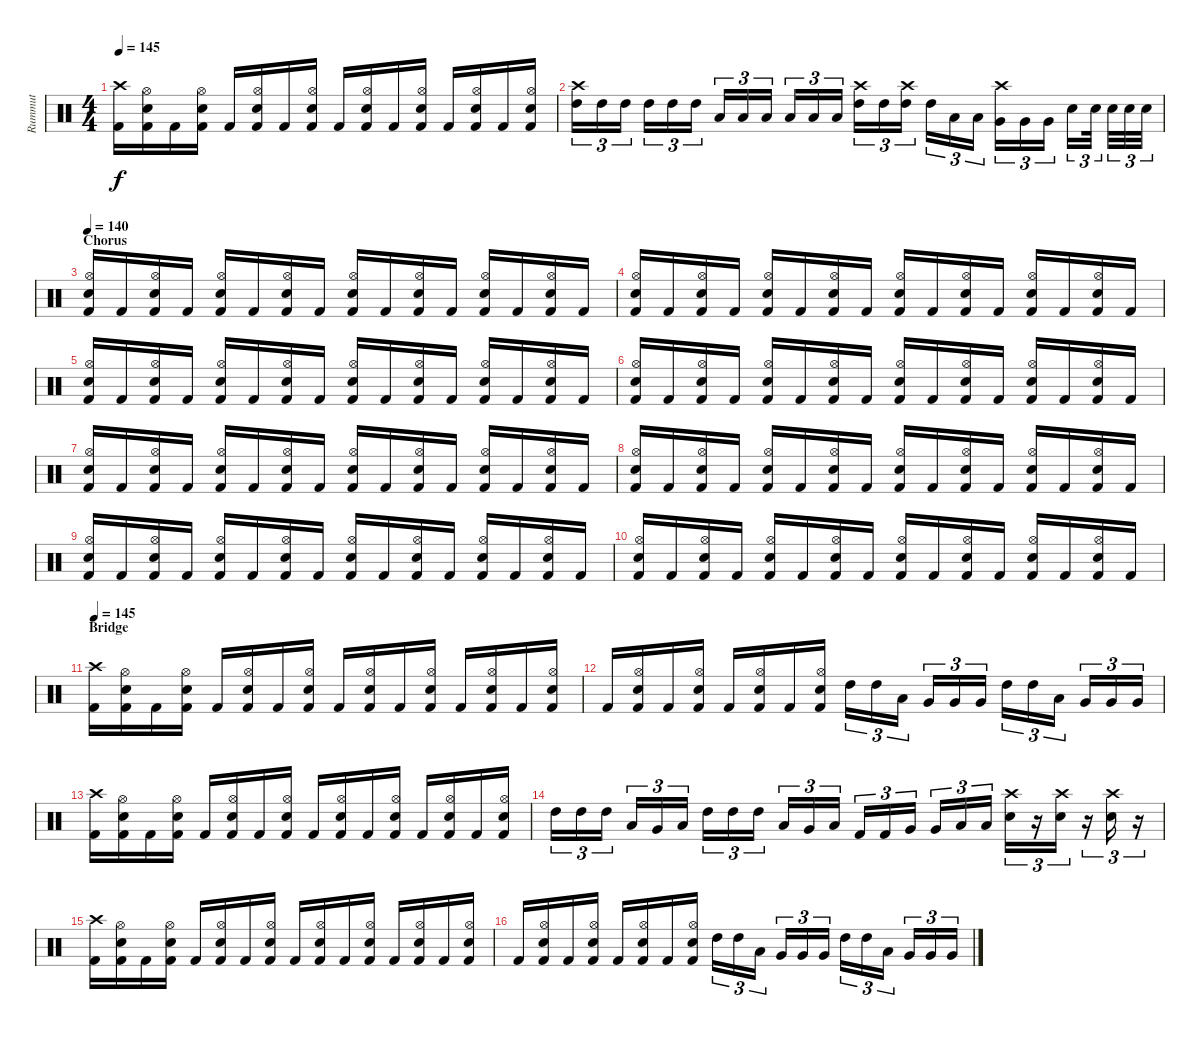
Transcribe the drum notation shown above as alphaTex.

\track ("Rummut" "Rummut") {instrument percussion}
\staff {score}
\articulation defaults
\ts (4 4)
\tempo 145
\clef neutral
\ks c
("Crash high (hit)" "Kick (hit) 2").16{dy f} ("Hi-Hat (open)" "Snare (hit) 2" "Kick (hit) 2").16 "Kick (hit) 2".16 ("Hi-Hat (open)" "Snare (hit) 2" "Kick (hit) 2").16 "Kick (hit) 2".16 ("Hi-Hat (open)" "Snare (hit) 2" "Kick (hit) 2").16 "Kick (hit) 2".16 ("Hi-Hat (open)" "Snare (hit) 2" "Kick (hit) 2").16 "Kick (hit) 2".16 ("Hi-Hat (open)" "Snare (hit) 2" "Kick (hit) 2").16 "Kick (hit) 2".16 ("Hi-Hat (open)" "Snare (hit) 2" "Kick (hit) 2").16 "Kick (hit) 2".16 ("Hi-Hat (open)" "Snare (hit) 2" "Kick (hit) 2").16 "Kick (hit) 2".16 ("Hi-Hat (open)" "Snare (hit) 2" "Kick (hit) 2").16 |
("Crash high (hit)" "High Tom (hit)").16{tu (3 2)} "High Tom (hit)".16{tu (3 2)} "High Tom (hit)".16{tu (3 2)} "High Tom (hit)".16{tu (3 2)} "High Tom (hit)".16{tu (3 2)} "High Tom (hit)".16{tu (3 2)} "Low Tom (hit)".16{tu (3 2)} "Low Tom (hit)".16{tu (3 2)} "Low Tom (hit)".16{tu (3 2)} "Low Tom (hit)".16{tu (3 2)} "Low Tom (hit)".16{tu (3 2)} "Low Tom (hit)".16{tu (3 2)} ("Crash high (hit)" "High Tom (hit)").16{tu (3 2)} "High Tom (hit)".16{tu (3 2)} ("Crash high (hit)" "High Tom (hit)").16{tu (3 2)} "High Tom (hit)".16{tu (3 2)} "Low Tom (hit)".16{tu (3 2)} "Low Tom (hit)".16{tu (3 2)} ("Crash high (hit)" "Very Low Tom (hit)").16{tu (3 2)} "Very Low Tom (hit)".16{tu (3 2)} "Very Low Tom (hit)".16{tu (3 2)} "Metronome (bell)".16{tu (3 2)} "Snare (hit) 2".32{tu (3 2)} "Snare (hit) 2".32{tu (3 2)} "Snare (hit) 2".32{tu (3 2)} "Snare (hit) 2".32{tu (3 2)} |
\section ("" "Chorus")
\tempo 140
("Hi-Hat (open)" "Snare (hit) 2" "Kick (hit) 2").16 "Kick (hit) 2".16 ("Hi-Hat (open)" "Snare (hit) 2" "Kick (hit) 2").16 "Kick (hit) 2".16 ("Hi-Hat (open)" "Snare (hit) 2" "Kick (hit) 2").16 "Kick (hit) 2".16 ("Hi-Hat (open)" "Snare (hit) 2" "Kick (hit) 2").16 "Kick (hit) 2".16 ("Hi-Hat (open)" "Snare (hit) 2" "Kick (hit) 2").16 "Kick (hit) 2".16 ("Hi-Hat (open)" "Snare (hit) 2" "Kick (hit) 2").16 "Kick (hit) 2".16 ("Hi-Hat (open)" "Snare (hit) 2" "Kick (hit) 2").16 "Kick (hit) 2".16 ("Hi-Hat (open)" "Snare (hit) 2" "Kick (hit) 2").16 "Kick (hit) 2".16 |
("Hi-Hat (open)" "Snare (hit) 2" "Kick (hit) 2").16 "Kick (hit) 2".16 ("Hi-Hat (open)" "Snare (hit) 2" "Kick (hit) 2").16 "Kick (hit) 2".16 ("Hi-Hat (open)" "Snare (hit) 2" "Kick (hit) 2").16 "Kick (hit) 2".16 ("Hi-Hat (open)" "Snare (hit) 2" "Kick (hit) 2").16 "Kick (hit) 2".16 ("Hi-Hat (open)" "Snare (hit) 2" "Kick (hit) 2").16 "Kick (hit) 2".16 ("Hi-Hat (open)" "Snare (hit) 2" "Kick (hit) 2").16 "Kick (hit) 2".16 ("Hi-Hat (open)" "Snare (hit) 2" "Kick (hit) 2").16 "Kick (hit) 2".16 ("Hi-Hat (open)" "Snare (hit) 2" "Kick (hit) 2").16 "Kick (hit) 2".16 |
("Hi-Hat (open)" "Snare (hit) 2" "Kick (hit) 2").16 "Kick (hit) 2".16 ("Hi-Hat (open)" "Snare (hit) 2" "Kick (hit) 2").16 "Kick (hit) 2".16 ("Hi-Hat (open)" "Snare (hit) 2" "Kick (hit) 2").16 "Kick (hit) 2".16 ("Hi-Hat (open)" "Snare (hit) 2" "Kick (hit) 2").16 "Kick (hit) 2".16 ("Hi-Hat (open)" "Snare (hit) 2" "Kick (hit) 2").16 "Kick (hit) 2".16 ("Hi-Hat (open)" "Snare (hit) 2" "Kick (hit) 2").16 "Kick (hit) 2".16 ("Hi-Hat (open)" "Snare (hit) 2" "Kick (hit) 2").16 "Kick (hit) 2".16 ("Hi-Hat (open)" "Snare (hit) 2" "Kick (hit) 2").16 "Kick (hit) 2".16 |
("Hi-Hat (open)" "Snare (hit) 2" "Kick (hit) 2").16 "Kick (hit) 2".16 ("Hi-Hat (open)" "Snare (hit) 2" "Kick (hit) 2").16 "Kick (hit) 2".16 ("Hi-Hat (open)" "Snare (hit) 2" "Kick (hit) 2").16 "Kick (hit) 2".16 ("Hi-Hat (open)" "Snare (hit) 2" "Kick (hit) 2").16 "Kick (hit) 2".16 ("Hi-Hat (open)" "Snare (hit) 2" "Kick (hit) 2").16 "Kick (hit) 2".16 ("Hi-Hat (open)" "Snare (hit) 2" "Kick (hit) 2").16 "Kick (hit) 2".16 ("Hi-Hat (open)" "Snare (hit) 2" "Kick (hit) 2").16 "Kick (hit) 2".16 ("Hi-Hat (open)" "Snare (hit) 2" "Kick (hit) 2").16 "Kick (hit) 2".16 |
("Hi-Hat (open)" "Snare (hit) 2" "Kick (hit) 2").16 "Kick (hit) 2".16 ("Hi-Hat (open)" "Snare (hit) 2" "Kick (hit) 2").16 "Kick (hit) 2".16 ("Hi-Hat (open)" "Snare (hit) 2" "Kick (hit) 2").16 "Kick (hit) 2".16 ("Hi-Hat (open)" "Snare (hit) 2" "Kick (hit) 2").16 "Kick (hit) 2".16 ("Hi-Hat (open)" "Snare (hit) 2" "Kick (hit) 2").16 "Kick (hit) 2".16 ("Hi-Hat (open)" "Snare (hit) 2" "Kick (hit) 2").16 "Kick (hit) 2".16 ("Hi-Hat (open)" "Snare (hit) 2" "Kick (hit) 2").16 "Kick (hit) 2".16 ("Hi-Hat (open)" "Snare (hit) 2" "Kick (hit) 2").16 "Kick (hit) 2".16 |
("Hi-Hat (open)" "Snare (hit) 2" "Kick (hit) 2").16 "Kick (hit) 2".16 ("Hi-Hat (open)" "Snare (hit) 2" "Kick (hit) 2").16 "Kick (hit) 2".16 ("Hi-Hat (open)" "Snare (hit) 2" "Kick (hit) 2").16 "Kick (hit) 2".16 ("Hi-Hat (open)" "Snare (hit) 2" "Kick (hit) 2").16 "Kick (hit) 2".16 ("Hi-Hat (open)" "Snare (hit) 2" "Kick (hit) 2").16 "Kick (hit) 2".16 ("Hi-Hat (open)" "Snare (hit) 2" "Kick (hit) 2").16 "Kick (hit) 2".16 ("Hi-Hat (open)" "Snare (hit) 2" "Kick (hit) 2").16 "Kick (hit) 2".16 ("Hi-Hat (open)" "Snare (hit) 2" "Kick (hit) 2").16 "Kick (hit) 2".16 |
("Hi-Hat (open)" "Snare (hit) 2" "Kick (hit) 2").16 "Kick (hit) 2".16 ("Hi-Hat (open)" "Snare (hit) 2" "Kick (hit) 2").16 "Kick (hit) 2".16 ("Hi-Hat (open)" "Snare (hit) 2" "Kick (hit) 2").16 "Kick (hit) 2".16 ("Hi-Hat (open)" "Snare (hit) 2" "Kick (hit) 2").16 "Kick (hit) 2".16 ("Hi-Hat (open)" "Snare (hit) 2" "Kick (hit) 2").16 "Kick (hit) 2".16 ("Hi-Hat (open)" "Snare (hit) 2" "Kick (hit) 2").16 "Kick (hit) 2".16 ("Hi-Hat (open)" "Snare (hit) 2" "Kick (hit) 2").16 "Kick (hit) 2".16 ("Hi-Hat (open)" "Snare (hit) 2" "Kick (hit) 2").16 "Kick (hit) 2".16 |
("Hi-Hat (open)" "Snare (hit) 2" "Kick (hit) 2").16 "Kick (hit) 2".16 ("Hi-Hat (open)" "Snare (hit) 2" "Kick (hit) 2").16 "Kick (hit) 2".16 ("Hi-Hat (open)" "Snare (hit) 2" "Kick (hit) 2").16 "Kick (hit) 2".16 ("Hi-Hat (open)" "Snare (hit) 2" "Kick (hit) 2").16 "Kick (hit) 2".16 ("Hi-Hat (open)" "Snare (hit) 2" "Kick (hit) 2").16 "Kick (hit) 2".16 ("Hi-Hat (open)" "Snare (hit) 2" "Kick (hit) 2").16 "Kick (hit) 2".16 ("Hi-Hat (open)" "Snare (hit) 2" "Kick (hit) 2").16 "Kick (hit) 2".16 ("Hi-Hat (open)" "Snare (hit) 2" "Kick (hit) 2").16 "Kick (hit) 2".16 |
\section ("" "Bridge")
\tempo 145
("Crash high (hit)" "Kick (hit) 2").16 ("Hi-Hat (open)" "Snare (hit) 2" "Kick (hit) 2").16 "Kick (hit) 2".16 ("Hi-Hat (open)" "Snare (hit) 2" "Kick (hit) 2").16 "Kick (hit) 2".16 ("Hi-Hat (open)" "Snare (hit) 2" "Kick (hit) 2").16 "Kick (hit) 2".16 ("Hi-Hat (open)" "Snare (hit) 2" "Kick (hit) 2").16 "Kick (hit) 2".16 ("Hi-Hat (open)" "Snare (hit) 2" "Kick (hit) 2").16 "Kick (hit) 2".16 ("Hi-Hat (open)" "Snare (hit) 2" "Kick (hit) 2").16 "Kick (hit) 2".16 ("Hi-Hat (open)" "Snare (hit) 2" "Kick (hit) 2").16 "Kick (hit) 2".16 ("Hi-Hat (open)" "Snare (hit) 2" "Kick (hit) 2").16 |
"Kick (hit) 2".16 ("Hi-Hat (open)" "Snare (hit) 2" "Kick (hit) 2").16 "Kick (hit) 2".16 ("Hi-Hat (open)" "Snare (hit) 2" "Kick (hit) 2").16 "Kick (hit) 2".16 ("Hi-Hat (open)" "Snare (hit) 2" "Kick (hit) 2").16 "Kick (hit) 2".16 ("Hi-Hat (open)" "Snare (hit) 2" "Kick (hit) 2").16 "High Tom (hit)".16{tu (3 2)} "High Tom (hit)".16{tu (3 2)} "Low Tom (hit)".16{tu (3 2)} "Very Low Tom (hit)".16{tu (3 2)} "Very Low Tom (hit)".16{tu (3 2)} "Very Low Tom (hit)".16{tu (3 2)} "High Tom (hit)".16{tu (3 2)} "High Tom (hit)".16{tu (3 2)} "Low Tom (hit)".16{tu (3 2)} "Very Low Tom (hit)".16{tu (3 2)} "Very Low Tom (hit)".16{tu (3 2)} "Very Low Tom (hit)".16{tu (3 2)} |
("Crash high (hit)" "Kick (hit) 2").16 ("Hi-Hat (open)" "Snare (hit) 2" "Kick (hit) 2").16 "Kick (hit) 2".16 ("Hi-Hat (open)" "Snare (hit) 2" "Kick (hit) 2").16 "Kick (hit) 2".16 ("Hi-Hat (open)" "Snare (hit) 2" "Kick (hit) 2").16 "Kick (hit) 2".16 ("Hi-Hat (open)" "Snare (hit) 2" "Kick (hit) 2").16 "Kick (hit) 2".16 ("Hi-Hat (open)" "Snare (hit) 2" "Kick (hit) 2").16 "Kick (hit) 2".16 ("Hi-Hat (open)" "Snare (hit) 2" "Kick (hit) 2").16 "Kick (hit) 2".16 ("Hi-Hat (open)" "Snare (hit) 2" "Kick (hit) 2").16 "Kick (hit) 2".16 ("Hi-Hat (open)" "Snare (hit) 2" "Kick (hit) 2").16 |
"High Tom (hit)".16{tu (3 2)} "High Tom (hit)".16{tu (3 2)} "High Tom (hit)".16{tu (3 2)} "Low Tom (hit)".16{tu (3 2)} "Very Low Tom (hit)".16{tu (3 2)} "Low Floor Tom (hit)".16{tu (3 2)} "High Tom (hit)".16{tu (3 2)} "High Tom (hit)".16{tu (3 2)} "High Tom (hit)".16{tu (3 2)} "Low Tom (hit)".16{tu (3 2)} "Very Low Tom (hit)".16{tu (3 2)} "Low Floor Tom (hit)".16{tu (3 2)} "Kick (hit) 2".16{tu (3 2)} "Kick (hit) 2".16{tu (3 2)} "Very Low Tom (hit)".16{tu (3 2)} "Very Low Tom (hit)".16{tu (3 2)} "Low Tom (hit)".16{tu (3 2)} "Low Tom (hit)".16{tu (3 2)} ("Crash high (hit)" "Snare (hit) 2").16{tu (3 2)} r.16{tu (3 2)} ("Crash high (hit)" "Snare (hit) 2").16{tu (3 2)} r.16{tu (3 2)} ("Crash high (hit)" "Snare (hit) 2").16{tu (3 2)} r.16{tu (3 2)} |
("Crash high (hit)" "Kick (hit) 2").16 ("Hi-Hat (open)" "Snare (hit) 2" "Kick (hit) 2").16 "Kick (hit) 2".16 ("Hi-Hat (open)" "Snare (hit) 2" "Kick (hit) 2").16 "Kick (hit) 2".16 ("Hi-Hat (open)" "Snare (hit) 2" "Kick (hit) 2").16 "Kick (hit) 2".16 ("Hi-Hat (open)" "Snare (hit) 2" "Kick (hit) 2").16 "Kick (hit) 2".16 ("Hi-Hat (open)" "Snare (hit) 2" "Kick (hit) 2").16 "Kick (hit) 2".16 ("Hi-Hat (open)" "Snare (hit) 2" "Kick (hit) 2").16 "Kick (hit) 2".16 ("Hi-Hat (open)" "Snare (hit) 2" "Kick (hit) 2").16 "Kick (hit) 2".16 ("Hi-Hat (open)" "Snare (hit) 2" "Kick (hit) 2").16 |
"Kick (hit) 2".16 ("Hi-Hat (open)" "Snare (hit) 2" "Kick (hit) 2").16 "Kick (hit) 2".16 ("Hi-Hat (open)" "Snare (hit) 2" "Kick (hit) 2").16 "Kick (hit) 2".16 ("Hi-Hat (open)" "Snare (hit) 2" "Kick (hit) 2").16 "Kick (hit) 2".16 ("Hi-Hat (open)" "Snare (hit) 2" "Kick (hit) 2").16 "High Tom (hit)".16{tu (3 2)} "High Tom (hit)".16{tu (3 2)} "Low Tom (hit)".16{tu (3 2)} "Very Low Tom (hit)".16{tu (3 2)} "Very Low Tom (hit)".16{tu (3 2)} "Very Low Tom (hit)".16{tu (3 2)} "High Tom (hit)".16{tu (3 2)} "High Tom (hit)".16{tu (3 2)} "Low Tom (hit)".16{tu (3 2)} "Very Low Tom (hit)".16{tu (3 2)} "Very Low Tom (hit)".16{tu (3 2)} "Very Low Tom (hit)".16{tu (3 2)}
